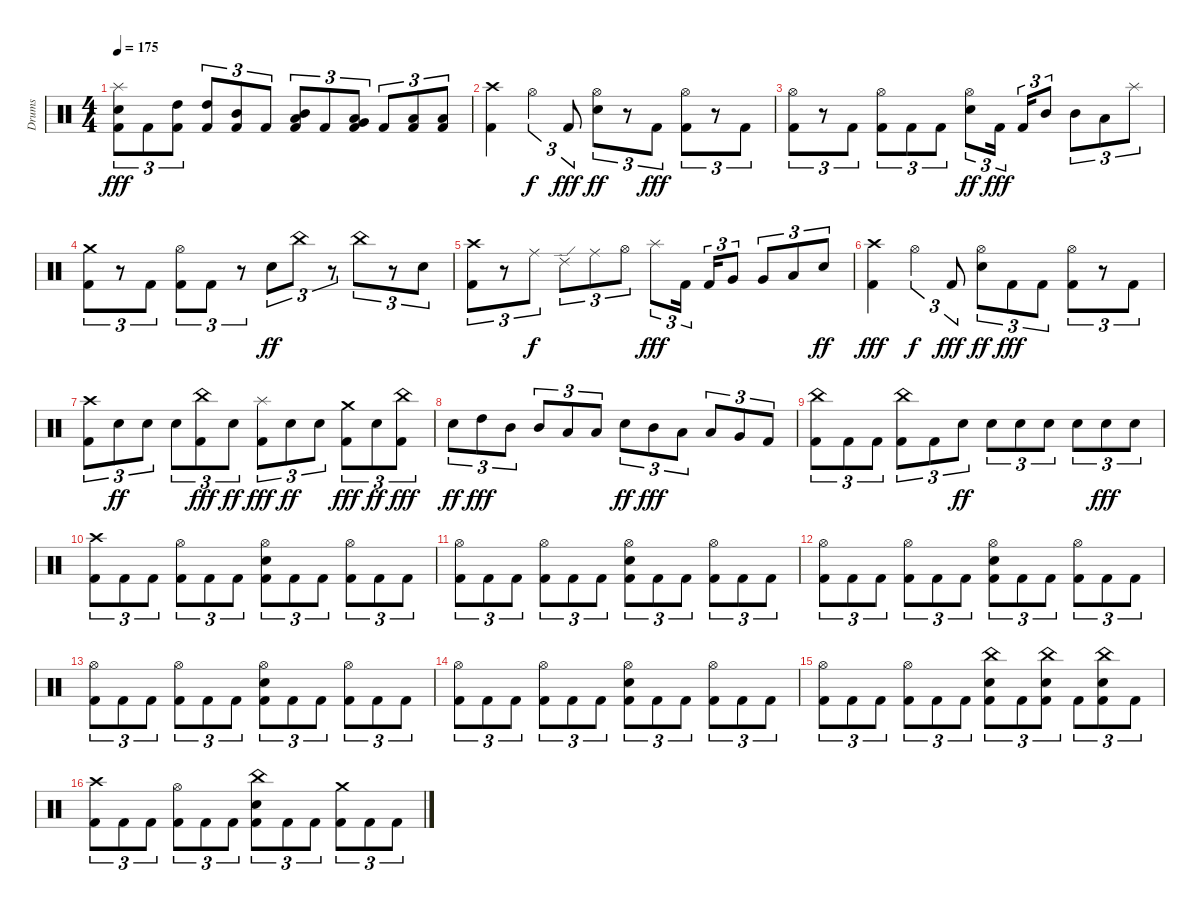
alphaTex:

\track ("Drums" "Drums") {instrument percussion}
\staff {score}
\articulation defaults
\ts (4 4)
\tempo 175
\clef neutral
\ks c
("Splash (hit)" "Snare (hit) 2" "Kick (hit) 2").8{tu (3 2) dy fff} "Kick (hit) 2".8{tu (3 2)} ("High Tom (hit)" "Kick (hit) 2").8{tu (3 2)} ("High Tom (hit)" "Kick (hit) 2").8{tu (3 2)} ("Mid Tom (hit)" "Kick (hit) 2").8{tu (3 2)} "Kick (hit) 2".8{tu (3 2)} ("Mid Tom (hit)" "Low Tom (hit)" "Kick (hit) 2").8{tu (3 2)} "Kick (hit) 2".8{tu (3 2)} ("Low Tom (hit)" "Very Low Tom (hit)" "Kick (hit) 2").8{tu (3 2)} "Kick (hit) 2".8{tu (3 2)} ("Low Floor Tom (hit)" "Kick (hit) 2").8{tu (3 2)} ("Low Floor Tom (hit)" "Kick (hit) 2").8{tu (3 2)} |
("Crash high (hit)" "Kick (hit) 2").4 "Hi-Hat (open)".4{tu (3 2) dy f} "Kick (hit) 2".8{tu (3 2) dy fff} ("Hi-Hat (open)" "Snare (hit) 2").8{tu (3 2) dy ff} r.8{tu (3 2)} "Kick (hit) 2".8{tu (3 2) dy fff} ("Hi-Hat (open)" "Kick (hit) 2").8{tu (3 2)} r.8{tu (3 2)} "Kick (hit) 2".8{tu (3 2)} |
("Hi-Hat (open)" "Kick (hit) 2").8{tu (3 2)} r.8{tu (3 2)} "Kick (hit) 2".8{tu (3 2)} ("Hi-Hat (open)" "Kick (hit) 2").8{tu (3 2)} "Kick (hit) 2".8{tu (3 2)} "Kick (hit) 2".8{tu (3 2)} ("Hi-Hat (open)" "Snare (hit) 2").8{tu (3 2) dy ff} "Kick (hit) 2".16{tu (3 2) dy fff beam splitsecondary} "Kick (hit) 2".16{tu (3 2)} "Mid Tom (hit)".8{tu (3 2)} "Mid Tom (hit)".8{tu (3 2)} "Low Tom (hit)".8{tu (3 2)} "Splash (hit)".8{tu (3 2)} |
("Crash medium (hit)" "Kick (hit) 2").8{tu (3 2)} r.8{tu (3 2)} "Kick (hit) 2".8{tu (3 2)} ("Hi-Hat (open)" "Kick (hit) 2").8{tu (3 2)} "Kick (hit) 2".8{tu (3 2)} r.8{tu (3 2)} "Snare (hit) 2".8{tu (3 2) dy ff} "China (hit)".8{tu (3 2)} r.8{tu (3 2)} "China (hit)".8{tu (3 2)} r.8{tu (3 2)} "Snare (hit) 2".8{tu (3 2)} |
("Crash high (hit)" "Kick (hit) 2").8{tu (3 2)} r.8{tu (3 2)} "Ride (middle)".8{tu (3 2) dy f} "Ride (edge) 2".8{tu (3 2)} "Ride (middle)".8{tu (3 2)} "Hi-Hat (open)".8{tu (3 2)} "Splash (hit)".8{tu (3 2) dy fff} "Kick (hit) 2".16{tu (3 2) beam splitsecondary} "Kick (hit) 2".16{tu (3 2)} "Very Low Tom (hit)".8{tu (3 2)} "Very Low Tom (hit)".8{tu (3 2)} "Low Floor Tom (hit)".8{tu (3 2)} "Snare (hit) 2".8{tu (3 2) dy ff} |
("Crash high (hit)" "Kick (hit) 2").4{dy fff} "Hi-Hat (open)".4{tu (3 2) dy f} "Kick (hit) 2".8{tu (3 2) dy fff} ("Hi-Hat (open)" "Snare (hit) 2").8{tu (3 2) dy ff} "Kick (hit) 2".8{tu (3 2) dy fff} "Kick (hit) 2".8{tu (3 2)} ("Hi-Hat (open)" "Kick (hit) 2").8{tu (3 2)} r.8{tu (3 2)} "Kick (hit) 2".8{tu (3 2)} |
("Crash high (hit)" "Kick (hit) 2").8{tu (3 2)} "Snare (hit) 2".8{tu (3 2) dy ff} "Snare (hit) 2".8{tu (3 2)} "Snare (hit) 2".8{tu (3 2)} ("China (hit)" "Kick (hit) 2").8{tu (3 2) dy fff} "Snare (hit) 2".8{tu (3 2) dy ff} ("Splash (hit)" "Kick (hit) 2").8{tu (3 2) dy fff} "Snare (hit) 2".8{tu (3 2) dy ff} "Snare (hit) 2".8{tu (3 2)} ("Crash medium (hit)" "Kick (hit) 2").8{tu (3 2) dy fff} "Snare (hit) 2".8{tu (3 2) dy ff} ("China (hit)" "Kick (hit) 2").8{tu (3 2) dy fff} |
"Snare (hit) 2".8{tu (3 2) dy ff} "High Tom (hit)".8{tu (3 2) dy fff} "Mid Tom (hit)".8{tu (3 2)} "Mid Tom (hit)".8{tu (3 2)} "Low Tom (hit)".8{tu (3 2)} "Low Tom (hit)".8{tu (3 2)} "Snare (hit) 2".8{tu (3 2) dy ff} "Mid Tom (hit)".8{tu (3 2) dy fff} "Low Tom (hit)".8{tu (3 2)} "Low Tom (hit)".8{tu (3 2)} "Very Low Tom (hit)".8{tu (3 2)} "Kick (hit) 2".8{tu (3 2)} |
("China (hit)" "Kick (hit) 2").8{tu (3 2)} "Kick (hit) 2".8{tu (3 2)} "Kick (hit) 2".8{tu (3 2)} ("China (hit)" "Kick (hit) 2").8{tu (3 2)} "Kick (hit) 2".8{tu (3 2)} "Snare (hit) 2".8{tu (3 2) dy ff} "Snare (hit) 2".8{tu (3 2)} "Snare (hit) 2".8{tu (3 2)} "Snare (hit) 2".8{tu (3 2)} "Snare (hit) 2".8{tu (3 2)} "Snare (hit) 2".8{tu (3 2) dy fff} "Snare (hit) 2".8{tu (3 2)} |
("Crash high (hit)" "Kick (hit) 2").8{tu (3 2)} "Kick (hit) 2".8{tu (3 2)} "Kick (hit) 2".8{tu (3 2)} ("Hi-Hat (open)" "Kick (hit) 2").8{tu (3 2)} "Kick (hit) 2".8{tu (3 2)} "Kick (hit) 2".8{tu (3 2)} ("Hi-Hat (open)" "Snare (hit) 2" "Kick (hit) 2").8{tu (3 2)} "Kick (hit) 2".8{tu (3 2)} "Kick (hit) 2".8{tu (3 2)} ("Hi-Hat (open)" "Kick (hit) 2").8{tu (3 2)} "Kick (hit) 2".8{tu (3 2)} "Kick (hit) 2".8{tu (3 2)} |
("Hi-Hat (open)" "Kick (hit) 2").8{tu (3 2)} "Kick (hit) 2".8{tu (3 2)} "Kick (hit) 2".8{tu (3 2)} ("Hi-Hat (open)" "Kick (hit) 2").8{tu (3 2)} "Kick (hit) 2".8{tu (3 2)} "Kick (hit) 2".8{tu (3 2)} ("Hi-Hat (open)" "Snare (hit) 2" "Kick (hit) 2").8{tu (3 2)} "Kick (hit) 2".8{tu (3 2)} "Kick (hit) 2".8{tu (3 2)} ("Hi-Hat (open)" "Kick (hit) 2").8{tu (3 2)} "Kick (hit) 2".8{tu (3 2)} "Kick (hit) 2".8{tu (3 2)} |
("Hi-Hat (open)" "Kick (hit) 2").8{tu (3 2)} "Kick (hit) 2".8{tu (3 2)} "Kick (hit) 2".8{tu (3 2)} ("Hi-Hat (open)" "Kick (hit) 2").8{tu (3 2)} "Kick (hit) 2".8{tu (3 2)} "Kick (hit) 2".8{tu (3 2)} ("Hi-Hat (open)" "Snare (hit) 2" "Kick (hit) 2").8{tu (3 2)} "Kick (hit) 2".8{tu (3 2)} "Kick (hit) 2".8{tu (3 2)} ("Hi-Hat (open)" "Kick (hit) 2").8{tu (3 2)} "Kick (hit) 2".8{tu (3 2)} "Kick (hit) 2".8{tu (3 2)} |
("Hi-Hat (open)" "Kick (hit) 2").8{tu (3 2)} "Kick (hit) 2".8{tu (3 2)} "Kick (hit) 2".8{tu (3 2)} ("Hi-Hat (open)" "Kick (hit) 2").8{tu (3 2)} "Kick (hit) 2".8{tu (3 2)} "Kick (hit) 2".8{tu (3 2)} ("Hi-Hat (open)" "Snare (hit) 2" "Kick (hit) 2").8{tu (3 2)} "Kick (hit) 2".8{tu (3 2)} "Kick (hit) 2".8{tu (3 2)} ("Hi-Hat (open)" "Kick (hit) 2").8{tu (3 2)} "Kick (hit) 2".8{tu (3 2)} "Kick (hit) 2".8{tu (3 2)} |
("Hi-Hat (open)" "Kick (hit) 2").8{tu (3 2)} "Kick (hit) 2".8{tu (3 2)} "Kick (hit) 2".8{tu (3 2)} ("Hi-Hat (open)" "Kick (hit) 2").8{tu (3 2)} "Kick (hit) 2".8{tu (3 2)} "Kick (hit) 2".8{tu (3 2)} ("Hi-Hat (open)" "Snare (hit) 2" "Kick (hit) 2").8{tu (3 2)} "Kick (hit) 2".8{tu (3 2)} "Kick (hit) 2".8{tu (3 2)} ("Hi-Hat (open)" "Kick (hit) 2").8{tu (3 2)} "Kick (hit) 2".8{tu (3 2)} "Kick (hit) 2".8{tu (3 2)} |
("Hi-Hat (open)" "Kick (hit) 2").8{tu (3 2)} "Kick (hit) 2".8{tu (3 2)} "Kick (hit) 2".8{tu (3 2)} ("Hi-Hat (open)" "Kick (hit) 2").8{tu (3 2)} "Kick (hit) 2".8{tu (3 2)} "Kick (hit) 2".8{tu (3 2)} ("China (hit)" "Snare (hit) 2" "Kick (hit) 2").8{tu (3 2)} "Kick (hit) 2".8{tu (3 2)} ("China (hit)" "Snare (hit) 2" "Kick (hit) 2").8{tu (3 2)} "Kick (hit) 2".8{tu (3 2)} ("China (hit)" "Snare (hit) 2" "Kick (hit) 2").8{tu (3 2)} "Kick (hit) 2".8{tu (3 2)} |
("Crash high (hit)" "Kick (hit) 2").8{tu (3 2)} "Kick (hit) 2".8{tu (3 2)} "Kick (hit) 2".8{tu (3 2)} ("Hi-Hat (open)" "Kick (hit) 2").8{tu (3 2)} "Kick (hit) 2".8{tu (3 2)} "Kick (hit) 2".8{tu (3 2)} ("China (hit)" "Snare (hit) 2" "Kick (hit) 2").8{tu (3 2)} "Kick (hit) 2".8{tu (3 2)} "Kick (hit) 2".8{tu (3 2)} ("Crash medium (hit)" "Kick (hit) 2").8{tu (3 2)} "Kick (hit) 2".8{tu (3 2)} "Kick (hit) 2".8{tu (3 2)}
